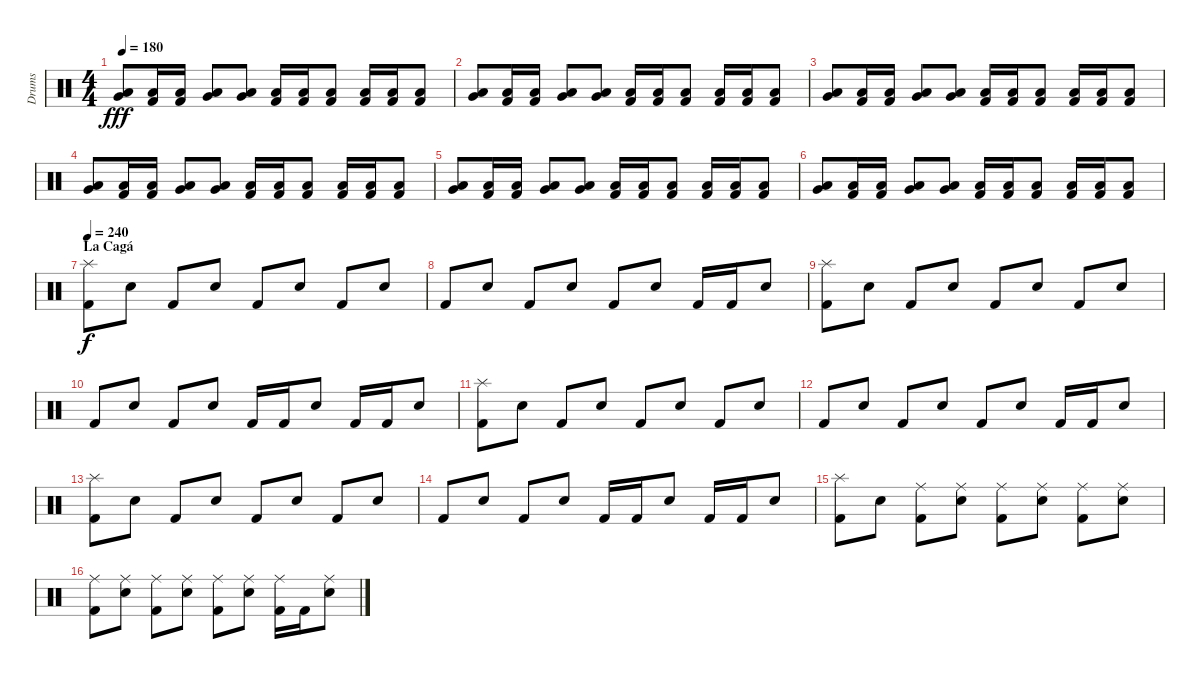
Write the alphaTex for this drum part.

\track ("Drums" "Drums") {instrument percussion}
\staff {score}
\articulation defaults
\ts (4 4)
\tempo 180
\clef neutral
\ks c
("Low Tom (hit)" "Very Low Tom (hit)").8{dy fff} ("Low Tom (hit)" "Kick (hit) 2").16 ("Low Tom (hit)" "Kick (hit) 2").16 ("Low Tom (hit)" "Very Low Tom (hit)").8 ("Low Tom (hit)" "Very Low Tom (hit)").8 ("Low Tom (hit)" "Kick (hit) 2").16 ("Low Tom (hit)" "Kick (hit) 2").16 ("Low Tom (hit)" "Kick (hit) 2").8 ("Low Tom (hit)" "Kick (hit) 2").16 ("Low Tom (hit)" "Kick (hit) 2").16 ("Low Tom (hit)" "Kick (hit) 2").8 |
("Low Tom (hit)" "Very Low Tom (hit)").8 ("Low Tom (hit)" "Kick (hit) 2").16 ("Low Tom (hit)" "Kick (hit) 2").16 ("Low Tom (hit)" "Very Low Tom (hit)").8 ("Low Tom (hit)" "Very Low Tom (hit)").8 ("Low Tom (hit)" "Kick (hit) 2").16 ("Low Tom (hit)" "Kick (hit) 2").16 ("Low Tom (hit)" "Kick (hit) 2").8 ("Low Tom (hit)" "Kick (hit) 2").16 ("Low Tom (hit)" "Kick (hit) 2").16 ("Low Tom (hit)" "Kick (hit) 2").8 |
("Low Tom (hit)" "Very Low Tom (hit)").8 ("Low Tom (hit)" "Kick (hit) 2").16 ("Low Tom (hit)" "Kick (hit) 2").16 ("Low Tom (hit)" "Very Low Tom (hit)").8 ("Low Tom (hit)" "Very Low Tom (hit)").8 ("Low Tom (hit)" "Kick (hit) 2").16 ("Low Tom (hit)" "Kick (hit) 2").16 ("Low Tom (hit)" "Kick (hit) 2").8 ("Low Tom (hit)" "Kick (hit) 2").16 ("Low Tom (hit)" "Kick (hit) 2").16 ("Low Tom (hit)" "Kick (hit) 2").8 |
("Low Tom (hit)" "Very Low Tom (hit)").8 ("Low Tom (hit)" "Kick (hit) 2").16 ("Low Tom (hit)" "Kick (hit) 2").16 ("Low Tom (hit)" "Very Low Tom (hit)").8 ("Low Tom (hit)" "Very Low Tom (hit)").8 ("Low Tom (hit)" "Kick (hit) 2").16 ("Low Tom (hit)" "Kick (hit) 2").16 ("Low Tom (hit)" "Kick (hit) 2").8 ("Low Tom (hit)" "Kick (hit) 2").16 ("Low Tom (hit)" "Kick (hit) 2").16 ("Low Tom (hit)" "Kick (hit) 2").8 |
("Low Tom (hit)" "Very Low Tom (hit)").8 ("Low Tom (hit)" "Kick (hit) 2").16 ("Low Tom (hit)" "Kick (hit) 2").16 ("Low Tom (hit)" "Very Low Tom (hit)").8 ("Low Tom (hit)" "Very Low Tom (hit)").8 ("Low Tom (hit)" "Kick (hit) 2").16 ("Low Tom (hit)" "Kick (hit) 2").16 ("Low Tom (hit)" "Kick (hit) 2").8 ("Low Tom (hit)" "Kick (hit) 2").16 ("Low Tom (hit)" "Kick (hit) 2").16 ("Low Tom (hit)" "Kick (hit) 2").8 |
("Low Tom (hit)" "Very Low Tom (hit)").8 ("Low Tom (hit)" "Kick (hit) 2").16 ("Low Tom (hit)" "Kick (hit) 2").16 ("Low Tom (hit)" "Very Low Tom (hit)").8 ("Low Tom (hit)" "Very Low Tom (hit)").8 ("Low Tom (hit)" "Kick (hit) 2").16 ("Low Tom (hit)" "Kick (hit) 2").16 ("Low Tom (hit)" "Kick (hit) 2").8 ("Low Tom (hit)" "Kick (hit) 2").16 ("Low Tom (hit)" "Kick (hit) 2").16 ("Low Tom (hit)" "Kick (hit) 2").8 |
\section ("" "La Cagá")
\tempo 240
("Splash (hit)" "Kick (hit) 2").8{dy f} "Electric Snare (hit)".8 "Kick (hit) 2".8 "Electric Snare (hit)".8 "Kick (hit) 2".8 "Electric Snare (hit)".8 "Kick (hit) 2".8 "Electric Snare (hit)".8 |
"Kick (hit) 2".8 "Electric Snare (hit)".8 "Kick (hit) 2".8 "Electric Snare (hit)".8 "Kick (hit) 2".8 "Electric Snare (hit)".8 "Kick (hit) 2".16 "Kick (hit) 2".16 "Electric Snare (hit)".8 |
("Splash (hit)" "Kick (hit) 2").8 "Electric Snare (hit)".8 "Kick (hit) 2".8 "Electric Snare (hit)".8 "Kick (hit) 2".8 "Electric Snare (hit)".8 "Kick (hit) 2".8 "Electric Snare (hit)".8 |
"Kick (hit) 2".8 "Electric Snare (hit)".8 "Kick (hit) 2".8 "Electric Snare (hit)".8 "Kick (hit) 2".16 "Kick (hit) 2".16 "Electric Snare (hit)".8 "Kick (hit) 2".16 "Kick (hit) 2".16 "Electric Snare (hit)".8 |
("Splash (hit)" "Kick (hit) 2").8 "Electric Snare (hit)".8 "Kick (hit) 2".8 "Electric Snare (hit)".8 "Kick (hit) 2".8 "Electric Snare (hit)".8 "Kick (hit) 2".8 "Electric Snare (hit)".8 |
"Kick (hit) 2".8 "Electric Snare (hit)".8 "Kick (hit) 2".8 "Electric Snare (hit)".8 "Kick (hit) 2".8 "Electric Snare (hit)".8 "Kick (hit) 2".16 "Kick (hit) 2".16 "Electric Snare (hit)".8 |
("Splash (hit)" "Kick (hit) 2").8 "Electric Snare (hit)".8 "Kick (hit) 2".8 "Electric Snare (hit)".8 "Kick (hit) 2".8 "Electric Snare (hit)".8 "Kick (hit) 2".8 "Electric Snare (hit)".8 |
"Kick (hit) 2".8 "Electric Snare (hit)".8 "Kick (hit) 2".8 "Electric Snare (hit)".8 "Kick (hit) 2".16 "Kick (hit) 2".16 "Electric Snare (hit)".8 "Kick (hit) 2".16 "Kick (hit) 2".16 "Electric Snare (hit)".8 |
("Splash (hit)" "Kick (hit) 2").8 "Electric Snare (hit)".8 ("Ride (middle)" "Kick (hit) 2").8 ("Ride (middle)" "Electric Snare (hit)").8 ("Ride (middle)" "Kick (hit) 2").8 ("Ride (middle)" "Electric Snare (hit)").8 ("Ride (middle)" "Kick (hit) 2").8 ("Ride (middle)" "Electric Snare (hit)").8 |
("Ride (middle)" "Kick (hit) 2").8 ("Ride (middle)" "Electric Snare (hit)").8 ("Ride (middle)" "Kick (hit) 2").8 ("Ride (middle)" "Electric Snare (hit)").8 ("Ride (middle)" "Kick (hit) 2").8 ("Ride (middle)" "Electric Snare (hit)").8 ("Ride (middle)" "Kick (hit) 2").16 "Kick (hit) 2".16 ("Ride (middle)" "Electric Snare (hit)").8
